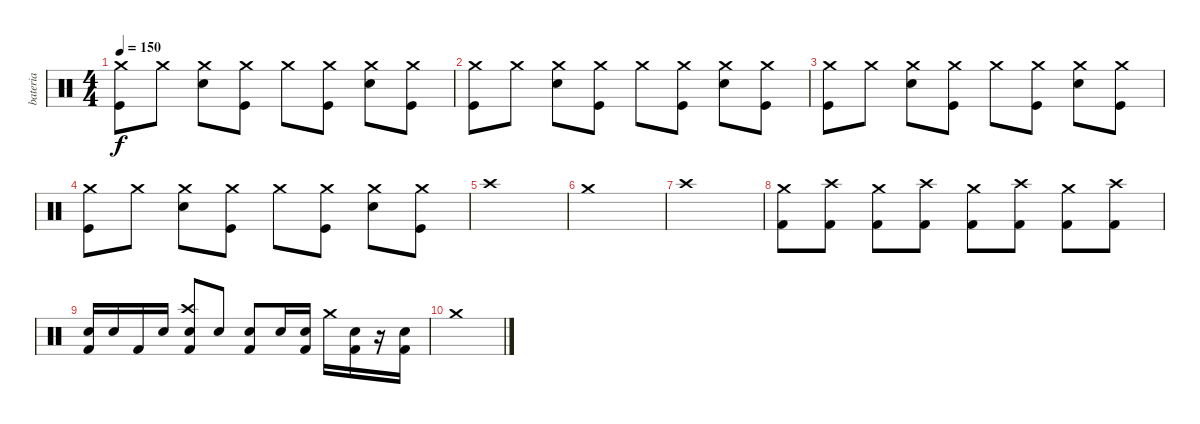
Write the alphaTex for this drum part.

\track ("bateria" "bateria") {instrument percussion}
\staff {score}
\articulation defaults
\ts (4 4)
\tempo 150
\clef neutral
\ks c
("Crash medium (hit)" "Kick (hit)").8{dy f} "Crash medium (hit)".8 ("Crash medium (hit)" "Electric Snare (hit)").8 ("Crash medium (hit)" "Kick (hit)").8 "Crash medium (hit)".8 ("Crash medium (hit)" "Kick (hit)").8 ("Crash medium (hit)" "Electric Snare (hit)").8 ("Crash medium (hit)" "Kick (hit)").8 |
("Crash medium (hit)" "Kick (hit)").8 "Crash medium (hit)".8 ("Crash medium (hit)" "Electric Snare (hit)").8 ("Crash medium (hit)" "Kick (hit)").8 "Crash medium (hit)".8 ("Crash medium (hit)" "Kick (hit)").8 ("Crash medium (hit)" "Electric Snare (hit)").8 ("Crash medium (hit)" "Kick (hit)").8 |
("Crash medium (hit)" "Kick (hit)").8 "Crash medium (hit)".8 ("Crash medium (hit)" "Electric Snare (hit)").8 ("Crash medium (hit)" "Kick (hit)").8 "Crash medium (hit)".8 ("Crash medium (hit)" "Kick (hit)").8 ("Crash medium (hit)" "Electric Snare (hit)").8 ("Crash medium (hit)" "Kick (hit)").8 |
("Crash medium (hit)" "Kick (hit)").8 "Crash medium (hit)".8 ("Crash medium (hit)" "Electric Snare (hit)").8 ("Crash medium (hit)" "Kick (hit)").8 "Crash medium (hit)".8 ("Crash medium (hit)" "Kick (hit)").8 ("Crash medium (hit)" "Electric Snare (hit)").8 ("Crash medium (hit)" "Kick (hit)").8 |
"Crash high (hit)".1 |
"Crash medium (hit)".1 |
"Crash high (hit)".1 |
("Crash medium (hit)" "Kick (hit) 2").8 ("Crash high (hit)" "Kick (hit) 2").8 ("Crash medium (hit)" "Kick (hit) 2").8 ("Crash high (hit)" "Kick (hit) 2").8 ("Crash medium (hit)" "Kick (hit) 2").8 ("Crash high (hit)" "Kick (hit) 2").8 ("Crash medium (hit)" "Kick (hit) 2").8 ("Crash high (hit)" "Kick (hit) 2").8 |
("Electric Snare (hit)" "Kick (hit) 2").16 "Electric Snare (hit)".16 "Kick (hit) 2".16 "Electric Snare (hit)".16 ("Crash high (hit)" "Electric Snare (hit)" "Kick (hit) 2").8 "Electric Snare (hit)".8 ("Electric Snare (hit)" "Kick (hit) 2").8 "Electric Snare (hit)".16 ("Electric Snare (hit)" "Kick (hit) 2").16 "Crash medium (hit)".16 ("Electric Snare (hit)" "Kick (hit) 2").16 r.16 ("Electric Snare (hit)" "Kick (hit) 2").16 |
"Crash medium (hit)".1
